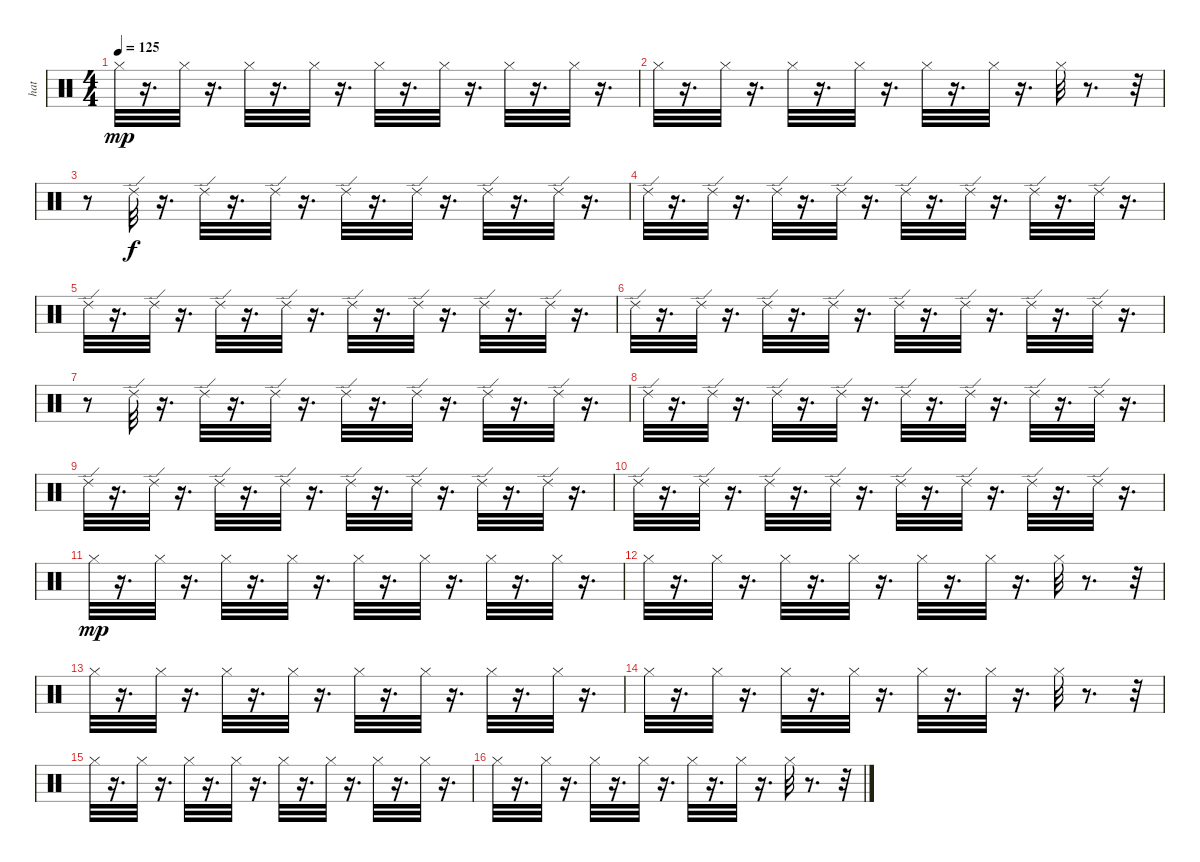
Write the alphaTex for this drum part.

\track ("hat" "hat") {instrument percussion}
\staff {score}
\articulation defaults
\ts (4 4)
\tempo 125
\clef neutral
\ks c "Hi-Hat (closed)".32{dy mp}
r.16{d} "Hi-Hat (closed)".32 r.16{d} "Hi-Hat (closed)".32 r.16{d} "Hi-Hat (closed)".32 r.16{d} "Hi-Hat (closed)".32 r.16{d} "Hi-Hat (closed)".32 r.16{d} "Hi-Hat (closed)".32 r.16{d} "Hi-Hat (closed)".32 r.16{d} |
"Hi-Hat (closed)".32 r.16{d} "Hi-Hat (closed)".32 r.16{d} "Hi-Hat (closed)".32 r.16{d} "Hi-Hat (closed)".32 r.16{d} "Hi-Hat (closed)".32 r.16{d} "Hi-Hat (closed)".32 r.16{d} "Hi-Hat (closed)".32 r.8{d} r.32 |
r.8 "Ride (edge) 2".32{dy f} r.16{d} "Ride (edge) 2".32 r.16{d} "Ride (edge) 2".32 r.16{d} "Ride (edge) 2".32 r.16{d} "Ride (edge) 2".32 r.16{d} "Ride (edge) 2".32 r.16{d} "Ride (edge) 2".32 r.16{d} |
"Ride (edge) 2".32 r.16{d} "Ride (edge) 2".32 r.16{d} "Ride (edge) 2".32 r.16{d} "Ride (edge) 2".32 r.16{d} "Ride (edge) 2".32 r.16{d} "Ride (edge) 2".32 r.16{d} "Ride (edge) 2".32 r.16{d} "Ride (edge) 2".32 r.16{d} |
"Ride (edge) 2".32 r.16{d} "Ride (edge) 2".32 r.16{d} "Ride (edge) 2".32 r.16{d} "Ride (edge) 2".32 r.16{d} "Ride (edge) 2".32 r.16{d} "Ride (edge) 2".32 r.16{d} "Ride (edge) 2".32 r.16{d} "Ride (edge) 2".32 r.16{d} |
"Ride (edge) 2".32 r.16{d} "Ride (edge) 2".32 r.16{d} "Ride (edge) 2".32 r.16{d} "Ride (edge) 2".32 r.16{d} "Ride (edge) 2".32 r.16{d} "Ride (edge) 2".32 r.16{d} "Ride (edge) 2".32 r.16{d} "Ride (edge) 2".32 r.16{d} |
r.8 "Ride (edge) 2".32 r.16{d} "Ride (edge) 2".32 r.16{d} "Ride (edge) 2".32 r.16{d} "Ride (edge) 2".32 r.16{d} "Ride (edge) 2".32 r.16{d} "Ride (edge) 2".32 r.16{d} "Ride (edge) 2".32 r.16{d} |
"Ride (edge) 2".32 r.16{d} "Ride (edge) 2".32 r.16{d} "Ride (edge) 2".32 r.16{d} "Ride (edge) 2".32 r.16{d} "Ride (edge) 2".32 r.16{d} "Ride (edge) 2".32 r.16{d} "Ride (edge) 2".32 r.16{d} "Ride (edge) 2".32 r.16{d} |
"Ride (edge) 2".32 r.16{d} "Ride (edge) 2".32 r.16{d} "Ride (edge) 2".32 r.16{d} "Ride (edge) 2".32 r.16{d} "Ride (edge) 2".32 r.16{d} "Ride (edge) 2".32 r.16{d} "Ride (edge) 2".32 r.16{d} "Ride (edge) 2".32 r.16{d} |
"Ride (edge) 2".32 r.16{d} "Ride (edge) 2".32 r.16{d} "Ride (edge) 2".32 r.16{d} "Ride (edge) 2".32 r.16{d} "Ride (edge) 2".32 r.16{d} "Ride (edge) 2".32 r.16{d} "Ride (edge) 2".32 r.16{d} "Ride (edge) 2".32 r.16{d} |
"Hi-Hat (closed)".32{dy mp} r.16{d} "Hi-Hat (closed)".32 r.16{d} "Hi-Hat (closed)".32 r.16{d} "Hi-Hat (closed)".32 r.16{d} "Hi-Hat (closed)".32 r.16{d} "Hi-Hat (closed)".32 r.16{d} "Hi-Hat (closed)".32 r.16{d} "Hi-Hat (closed)".32 r.16{d} |
"Hi-Hat (closed)".32 r.16{d} "Hi-Hat (closed)".32 r.16{d} "Hi-Hat (closed)".32 r.16{d} "Hi-Hat (closed)".32 r.16{d} "Hi-Hat (closed)".32 r.16{d} "Hi-Hat (closed)".32 r.16{d} "Hi-Hat (closed)".32 r.8{d} r.32 |
"Hi-Hat (closed)".32 r.16{d} "Hi-Hat (closed)".32 r.16{d} "Hi-Hat (closed)".32 r.16{d} "Hi-Hat (closed)".32 r.16{d} "Hi-Hat (closed)".32 r.16{d} "Hi-Hat (closed)".32 r.16{d} "Hi-Hat (closed)".32 r.16{d} "Hi-Hat (closed)".32 r.16{d} |
"Hi-Hat (closed)".32 r.16{d} "Hi-Hat (closed)".32 r.16{d} "Hi-Hat (closed)".32 r.16{d} "Hi-Hat (closed)".32 r.16{d} "Hi-Hat (closed)".32 r.16{d} "Hi-Hat (closed)".32 r.16{d} "Hi-Hat (closed)".32 r.8{d} r.32 |
"Hi-Hat (closed)".32 r.16{d} "Hi-Hat (closed)".32 r.16{d} "Hi-Hat (closed)".32 r.16{d} "Hi-Hat (closed)".32 r.16{d} "Hi-Hat (closed)".32 r.16{d} "Hi-Hat (closed)".32 r.16{d} "Hi-Hat (closed)".32 r.16{d} "Hi-Hat (closed)".32 r.16{d} |
"Hi-Hat (closed)".32 r.16{d} "Hi-Hat (closed)".32 r.16{d} "Hi-Hat (closed)".32 r.16{d} "Hi-Hat (closed)".32 r.16{d} "Hi-Hat (closed)".32 r.16{d} "Hi-Hat (closed)".32 r.16{d} "Hi-Hat (closed)".32 r.8{d} r.32
